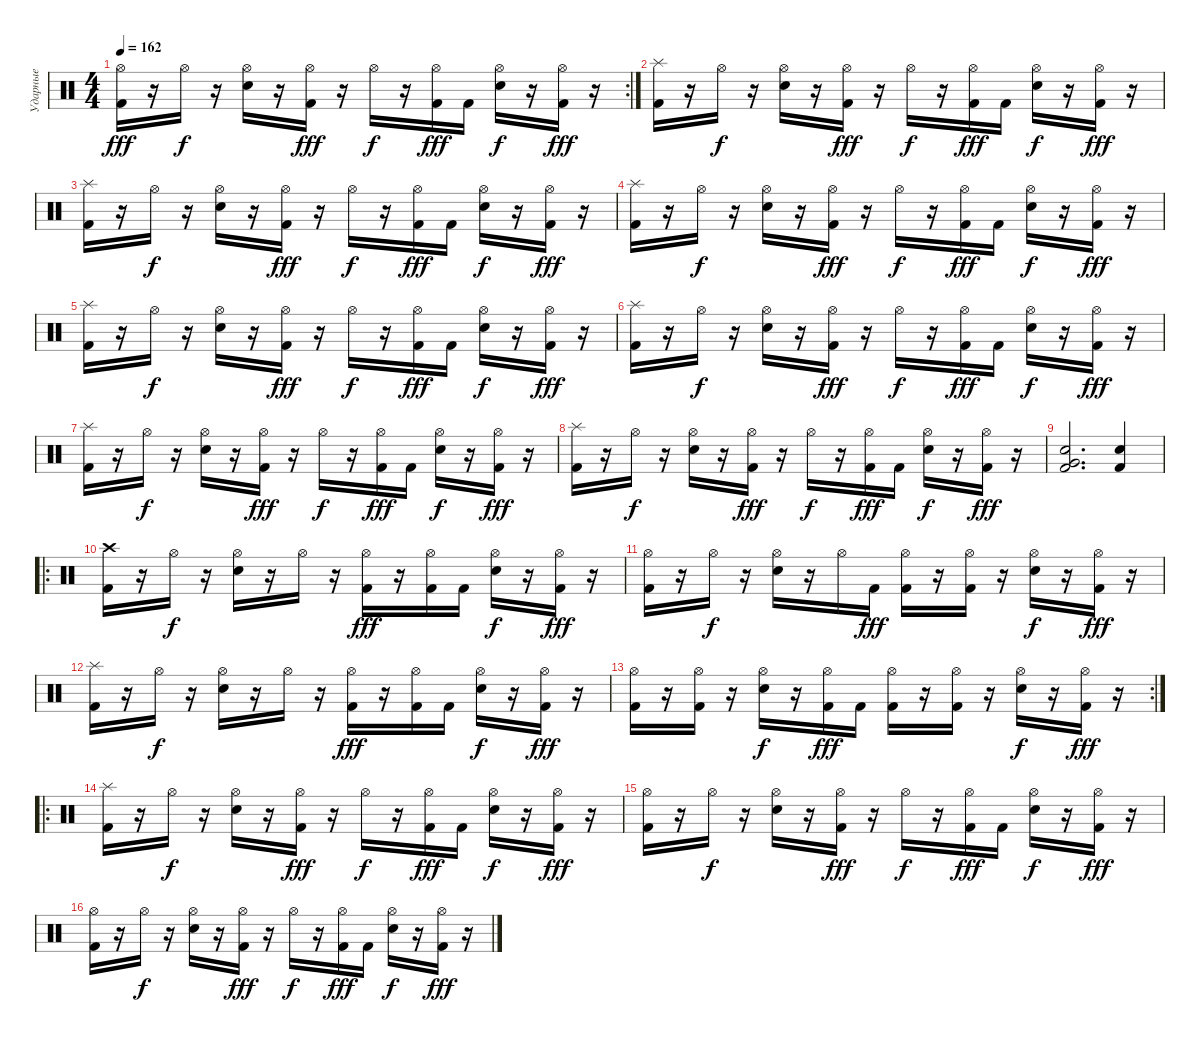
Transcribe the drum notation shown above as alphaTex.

\track ("Ударные" "Ударные") {instrument percussion}
\staff {score}
\articulation defaults
\rc 2
\ts (4 4)
\tempo 162
\clef neutral
\ks c
("Hi-Hat (open)" "Kick (hit) 2").16{dy fff} r.16 "Hi-Hat (open)".16{dy f} r.16 ("Hi-Hat (open)" "Electric Snare (hit)").16 r.16 ("Hi-Hat (open)" "Kick (hit) 2").16{dy fff} r.16 "Hi-Hat (open)".16{dy f} r.16 ("Hi-Hat (open)" "Kick (hit) 2").16{dy fff} "Kick (hit) 2".16 ("Hi-Hat (open)" "Electric Snare (hit)").16{dy f} r.16 ("Hi-Hat (open)" "Kick (hit) 2").16{dy fff} r.16 |
("Splash (hit)" "Kick (hit) 2").16 r.16 "Hi-Hat (open)".16{dy f} r.16 ("Hi-Hat (open)" "Electric Snare (hit)").16 r.16 ("Hi-Hat (open)" "Kick (hit) 2").16{dy fff} r.16 "Hi-Hat (open)".16{dy f} r.16 ("Hi-Hat (open)" "Kick (hit) 2").16{dy fff} "Kick (hit) 2".16 ("Hi-Hat (open)" "Electric Snare (hit)").16{dy f} r.16 ("Hi-Hat (open)" "Kick (hit) 2").16{dy fff} r.16 |
("Splash (hit)" "Kick (hit) 2").16 r.16 "Hi-Hat (open)".16{dy f} r.16 ("Hi-Hat (open)" "Electric Snare (hit)").16 r.16 ("Hi-Hat (open)" "Kick (hit) 2").16{dy fff} r.16 "Hi-Hat (open)".16{dy f} r.16 ("Hi-Hat (open)" "Kick (hit) 2").16{dy fff} "Kick (hit) 2".16 ("Hi-Hat (open)" "Electric Snare (hit)").16{dy f} r.16 ("Hi-Hat (open)" "Kick (hit) 2").16{dy fff} r.16 |
("Splash (hit)" "Kick (hit) 2").16 r.16 "Hi-Hat (open)".16{dy f} r.16 ("Hi-Hat (open)" "Electric Snare (hit)").16 r.16 ("Hi-Hat (open)" "Kick (hit) 2").16{dy fff} r.16 "Hi-Hat (open)".16{dy f} r.16 ("Hi-Hat (open)" "Kick (hit) 2").16{dy fff} "Kick (hit) 2".16 ("Hi-Hat (open)" "Electric Snare (hit)").16{dy f} r.16 ("Hi-Hat (open)" "Kick (hit) 2").16{dy fff} r.16 |
("Splash (hit)" "Kick (hit) 2").16 r.16 "Hi-Hat (open)".16{dy f} r.16 ("Hi-Hat (open)" "Electric Snare (hit)").16 r.16 ("Hi-Hat (open)" "Kick (hit) 2").16{dy fff} r.16 "Hi-Hat (open)".16{dy f} r.16 ("Hi-Hat (open)" "Kick (hit) 2").16{dy fff} "Kick (hit) 2".16 ("Hi-Hat (open)" "Electric Snare (hit)").16{dy f} r.16 ("Hi-Hat (open)" "Kick (hit) 2").16{dy fff} r.16 |
("Splash (hit)" "Kick (hit) 2").16 r.16 "Hi-Hat (open)".16{dy f} r.16 ("Hi-Hat (open)" "Electric Snare (hit)").16 r.16 ("Hi-Hat (open)" "Kick (hit) 2").16{dy fff} r.16 "Hi-Hat (open)".16{dy f} r.16 ("Hi-Hat (open)" "Kick (hit) 2").16{dy fff} "Kick (hit) 2".16 ("Hi-Hat (open)" "Electric Snare (hit)").16{dy f} r.16 ("Hi-Hat (open)" "Kick (hit) 2").16{dy fff} r.16 |
("Splash (hit)" "Kick (hit) 2").16 r.16 "Hi-Hat (open)".16{dy f} r.16 ("Hi-Hat (open)" "Electric Snare (hit)").16 r.16 ("Hi-Hat (open)" "Kick (hit) 2").16{dy fff} r.16 "Hi-Hat (open)".16{dy f} r.16 ("Hi-Hat (open)" "Kick (hit) 2").16{dy fff} "Kick (hit) 2".16 ("Hi-Hat (open)" "Electric Snare (hit)").16{dy f} r.16 ("Hi-Hat (open)" "Kick (hit) 2").16{dy fff} r.16 |
("Splash (hit)" "Kick (hit) 2").16 r.16 "Hi-Hat (open)".16{dy f} r.16 ("Hi-Hat (open)" "Electric Snare (hit)").16 r.16 ("Hi-Hat (open)" "Kick (hit) 2").16{dy fff} r.16 "Hi-Hat (open)".16{dy f} r.16 ("Hi-Hat (open)" "Kick (hit) 2").16{dy fff} "Kick (hit) 2".16 ("Hi-Hat (open)" "Electric Snare (hit)").16{dy f} r.16 ("Hi-Hat (open)" "Kick (hit) 2").16{dy fff} r.16 |
("Very Low Tom (hit)" "Electric Snare (hit)" "Kick (hit) 2").2{d} ("Electric Snare (hit)" "Kick (hit) 2").4 |
\ro
("Crash high (hit)" "Kick (hit) 2").16 r.16 "Hi-Hat (open)".16{dy f} r.16 ("Hi-Hat (open)" "Electric Snare (hit)").16 r.16 "Hi-Hat (open)".16 r.16 ("Hi-Hat (open)" "Kick (hit) 2").16{dy fff} r.16 ("Hi-Hat (open)" "Kick (hit) 2").16 "Kick (hit) 2".16 ("Hi-Hat (open)" "Electric Snare (hit)").16{dy f} r.16 ("Hi-Hat (open)" "Kick (hit) 2").16{dy fff} r.16 |
("Hi-Hat (open)" "Kick (hit) 2").16 r.16 "Hi-Hat (open)".16{dy f} r.16 ("Hi-Hat (open)" "Electric Snare (hit)").16 r.16 "Hi-Hat (open)".16 "Kick (hit) 2".16{dy fff} ("Hi-Hat (open)" "Kick (hit) 2").16 r.16 ("Hi-Hat (open)" "Kick (hit) 2").16 r.16 ("Hi-Hat (open)" "Electric Snare (hit)").16{dy f} r.16 ("Hi-Hat (open)" "Kick (hit) 2").16{dy fff} r.16 |
("Splash (hit)" "Kick (hit) 2").16 r.16 "Hi-Hat (open)".16{dy f} r.16 ("Hi-Hat (open)" "Electric Snare (hit)").16 r.16 "Hi-Hat (open)".16 r.16 ("Hi-Hat (open)" "Kick (hit) 2").16{dy fff} r.16 ("Hi-Hat (open)" "Kick (hit) 2").16 "Kick (hit) 2".16 ("Hi-Hat (open)" "Electric Snare (hit)").16{dy f} r.16 ("Hi-Hat (open)" "Kick (hit) 2").16{dy fff} r.16 |
\rc 2
("Hi-Hat (open)" "Kick (hit) 2").16 r.16 ("Hi-Hat (open)" "Kick (hit) 2").16 r.16 ("Hi-Hat (open)" "Electric Snare (hit)").16{dy f} r.16 ("Hi-Hat (open)" "Kick (hit) 2").16{dy fff} "Kick (hit) 2".16 ("Hi-Hat (open)" "Kick (hit) 2").16 r.16 ("Hi-Hat (open)" "Kick (hit) 2").16 r.16 ("Hi-Hat (open)" "Electric Snare (hit)").16{dy f} r.16 ("Hi-Hat (open)" "Kick (hit) 2").16{dy fff} r.16 |
\ro
("Splash (hit)" "Kick (hit) 2").16 r.16 "Hi-Hat (open)".16{dy f} r.16 ("Hi-Hat (open)" "Electric Snare (hit)").16 r.16 ("Hi-Hat (open)" "Kick (hit) 2").16{dy fff} r.16 "Hi-Hat (open)".16{dy f} r.16 ("Hi-Hat (open)" "Kick (hit) 2").16{dy fff} "Kick (hit) 2".16 ("Hi-Hat (open)" "Electric Snare (hit)").16{dy f} r.16 ("Hi-Hat (open)" "Kick (hit) 2").16{dy fff} r.16 |
("Hi-Hat (open)" "Kick (hit) 2").16 r.16 "Hi-Hat (open)".16{dy f} r.16 ("Hi-Hat (open)" "Electric Snare (hit)").16 r.16 ("Hi-Hat (open)" "Kick (hit) 2").16{dy fff} r.16 "Hi-Hat (open)".16{dy f} r.16 ("Hi-Hat (open)" "Kick (hit) 2").16{dy fff} "Kick (hit) 2".16 ("Hi-Hat (open)" "Electric Snare (hit)").16{dy f} r.16 ("Hi-Hat (open)" "Kick (hit) 2").16{dy fff} r.16 |
("Hi-Hat (open)" "Kick (hit) 2").16 r.16 "Hi-Hat (open)".16{dy f} r.16 ("Hi-Hat (open)" "Electric Snare (hit)").16 r.16 ("Hi-Hat (open)" "Kick (hit) 2").16{dy fff} r.16 "Hi-Hat (open)".16{dy f} r.16 ("Hi-Hat (open)" "Kick (hit) 2").16{dy fff} "Kick (hit) 2".16 ("Hi-Hat (open)" "Electric Snare (hit)").16{dy f} r.16 ("Hi-Hat (open)" "Kick (hit) 2").16{dy fff} r.16
